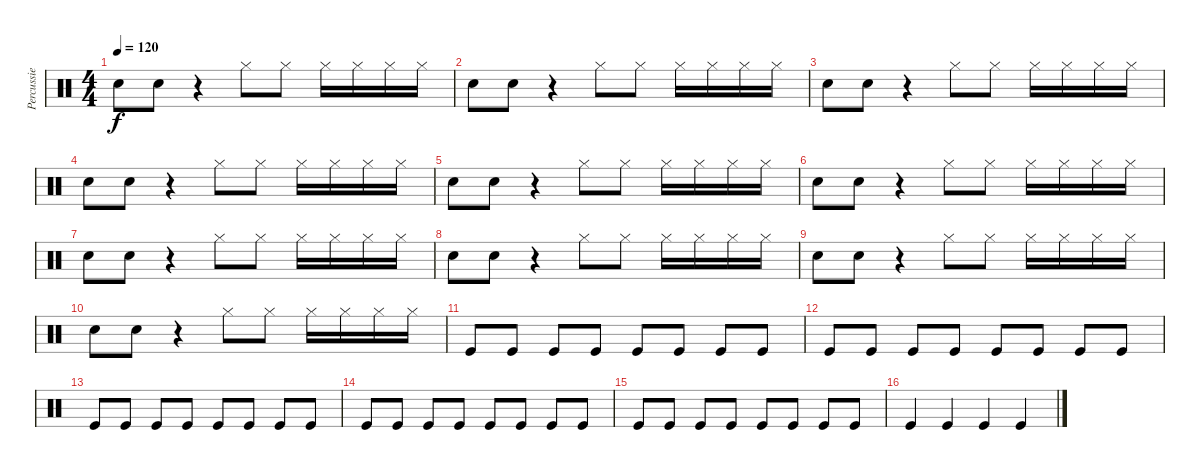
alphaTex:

\track ("Percussie" "Percussie") {instrument percussion}
\staff {score}
\articulation defaults
\ts (4 4)
\tempo 120
\clef neutral
\ks c "Snare (hit) 2".8{dy f} "Snare (hit) 2".8
r.4 "Hi-Hat (closed)".8 "Hi-Hat (closed)".8 "Hi-Hat (closed)".16 "Hi-Hat (closed)".16 "Hi-Hat (closed)".16 "Hi-Hat (closed)".16 |
"Snare (hit) 2".8 "Snare (hit) 2".8 r.4 "Hi-Hat (closed)".8 "Hi-Hat (closed)".8 "Hi-Hat (closed)".16 "Hi-Hat (closed)".16 "Hi-Hat (closed)".16 "Hi-Hat (closed)".16 |
"Snare (hit) 2".8 "Snare (hit) 2".8 r.4 "Hi-Hat (closed)".8 "Hi-Hat (closed)".8 "Hi-Hat (closed)".16 "Hi-Hat (closed)".16 "Hi-Hat (closed)".16 "Hi-Hat (closed)".16 |
"Snare (hit) 2".8 "Snare (hit) 2".8 r.4 "Hi-Hat (closed)".8 "Hi-Hat (closed)".8 "Hi-Hat (closed)".16 "Hi-Hat (closed)".16 "Hi-Hat (closed)".16 "Hi-Hat (closed)".16 |
"Snare (hit) 2".8 "Snare (hit) 2".8 r.4 "Hi-Hat (closed)".8 "Hi-Hat (closed)".8 "Hi-Hat (closed)".16 "Hi-Hat (closed)".16 "Hi-Hat (closed)".16 "Hi-Hat (closed)".16 |
"Snare (hit) 2".8 "Snare (hit) 2".8 r.4 "Hi-Hat (closed)".8 "Hi-Hat (closed)".8 "Hi-Hat (closed)".16 "Hi-Hat (closed)".16 "Hi-Hat (closed)".16 "Hi-Hat (closed)".16 |
"Snare (hit) 2".8 "Snare (hit) 2".8 r.4 "Hi-Hat (closed)".8 "Hi-Hat (closed)".8 "Hi-Hat (closed)".16 "Hi-Hat (closed)".16 "Hi-Hat (closed)".16 "Hi-Hat (closed)".16 |
"Snare (hit) 2".8 "Snare (hit) 2".8 r.4 "Hi-Hat (closed)".8 "Hi-Hat (closed)".8 "Hi-Hat (closed)".16 "Hi-Hat (closed)".16 "Hi-Hat (closed)".16 "Hi-Hat (closed)".16 |
"Snare (hit) 2".8 "Snare (hit) 2".8 r.4 "Hi-Hat (closed)".8 "Hi-Hat (closed)".8 "Hi-Hat (closed)".16 "Hi-Hat (closed)".16 "Hi-Hat (closed)".16 "Hi-Hat (closed)".16 |
"Snare (hit) 2".8 "Snare (hit) 2".8 r.4 "Hi-Hat (closed)".8 "Hi-Hat (closed)".8 "Hi-Hat (closed)".16 "Hi-Hat (closed)".16 "Hi-Hat (closed)".16 "Hi-Hat (closed)".16 |
"Kick (hit)".8 "Kick (hit)".8 "Kick (hit)".8 "Kick (hit)".8 "Kick (hit)".8 "Kick (hit)".8 "Kick (hit)".8 "Kick (hit)".8 |
"Kick (hit)".8 "Kick (hit)".8 "Kick (hit)".8 "Kick (hit)".8 "Kick (hit)".8 "Kick (hit)".8 "Kick (hit)".8 "Kick (hit)".8 |
"Kick (hit)".8 "Kick (hit)".8 "Kick (hit)".8 "Kick (hit)".8 "Kick (hit)".8 "Kick (hit)".8 "Kick (hit)".8 "Kick (hit)".8 |
"Kick (hit)".8 "Kick (hit)".8 "Kick (hit)".8 "Kick (hit)".8 "Kick (hit)".8 "Kick (hit)".8 "Kick (hit)".8 "Kick (hit)".8 |
"Kick (hit)".8 "Kick (hit)".8 "Kick (hit)".8 "Kick (hit)".8 "Kick (hit)".8 "Kick (hit)".8 "Kick (hit)".8 "Kick (hit)".8 |
"Kick (hit)".4 "Kick (hit)".4 "Kick (hit)".4 "Kick (hit)".4
